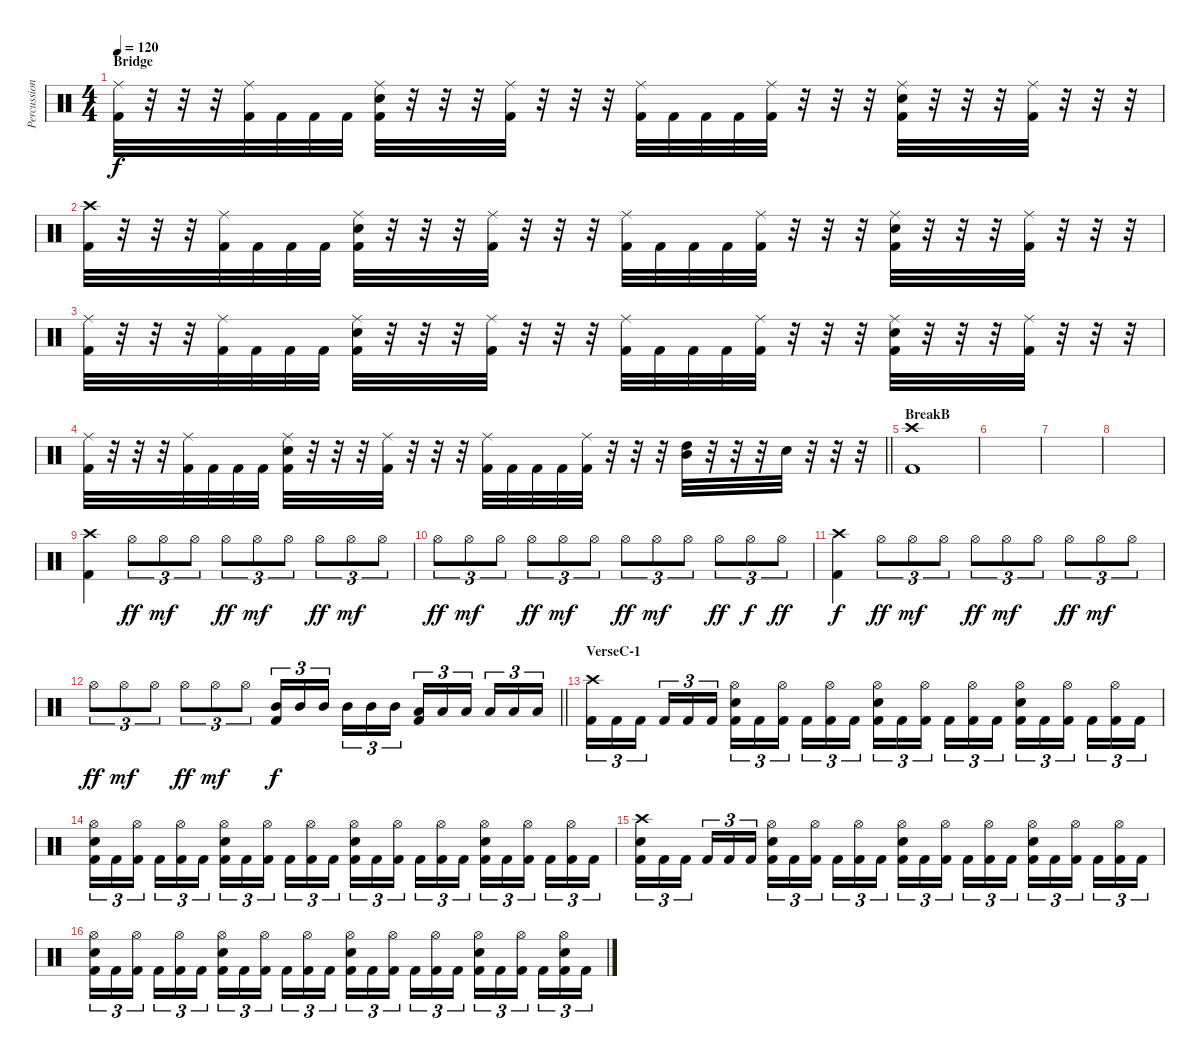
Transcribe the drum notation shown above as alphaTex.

\track ("Percussion" "Percussion") {instrument percussion}
\staff {score}
\articulation defaults
\ts (4 4)
\section ("" "Bridge")
\tempo 120
\clef neutral
\ks c
("Ride (middle)" "Kick (hit) 2").32{dy f} r.32 r.32 r.32 ("Ride (middle)" "Kick (hit) 2").32 "Kick (hit) 2".32 "Kick (hit) 2".32 "Kick (hit) 2".32 ("Ride (middle)" "Snare (hit) 2" "Kick (hit) 2").32 r.32 r.32 r.32 ("Ride (middle)" "Kick (hit) 2").32 r.32 r.32 r.32 ("Ride (middle)" "Kick (hit) 2").32 "Kick (hit) 2".32 "Kick (hit) 2".32 "Kick (hit) 2".32 ("Ride (middle)" "Kick (hit) 2").32 r.32 r.32 r.32 ("Ride (middle)" "Snare (hit) 2" "Kick (hit) 2").32 r.32 r.32 r.32 ("Ride (middle)" "Kick (hit) 2").32 r.32 r.32 r.32 |
("Crash high (hit)" "Kick (hit) 2").32 r.32 r.32 r.32 ("Ride (middle)" "Kick (hit) 2").32 "Kick (hit) 2".32 "Kick (hit) 2".32 "Kick (hit) 2".32 ("Ride (middle)" "Snare (hit) 2" "Kick (hit) 2").32 r.32 r.32 r.32 ("Ride (middle)" "Kick (hit) 2").32 r.32 r.32 r.32 ("Ride (middle)" "Kick (hit) 2").32 "Kick (hit) 2".32 "Kick (hit) 2".32 "Kick (hit) 2".32 ("Ride (middle)" "Kick (hit) 2").32 r.32 r.32 r.32 ("Ride (middle)" "Snare (hit) 2" "Kick (hit) 2").32 r.32 r.32 r.32 ("Ride (middle)" "Kick (hit) 2").32 r.32 r.32 r.32 |
("Ride (middle)" "Kick (hit) 2").32 r.32 r.32 r.32 ("Ride (middle)" "Kick (hit) 2").32 "Kick (hit) 2".32 "Kick (hit) 2".32 "Kick (hit) 2".32 ("Ride (middle)" "Snare (hit) 2" "Kick (hit) 2").32 r.32 r.32 r.32 ("Ride (middle)" "Kick (hit) 2").32 r.32 r.32 r.32 ("Ride (middle)" "Kick (hit) 2").32 "Kick (hit) 2".32 "Kick (hit) 2".32 "Kick (hit) 2".32 ("Ride (middle)" "Kick (hit) 2").32 r.32 r.32 r.32 ("Ride (middle)" "Snare (hit) 2" "Kick (hit) 2").32 r.32 r.32 r.32 ("Ride (middle)" "Kick (hit) 2").32 r.32 r.32 r.32 |
\barLineRight lightlight
("Ride (middle)" "Kick (hit) 2").32 r.32 r.32 r.32 ("Ride (middle)" "Kick (hit) 2").32 "Kick (hit) 2".32 "Kick (hit) 2".32 "Kick (hit) 2".32 ("Ride (middle)" "Snare (hit) 2" "Kick (hit) 2").32 r.32 r.32 r.32 ("Ride (middle)" "Kick (hit) 2").32 r.32 r.32 r.32 ("Ride (middle)" "Kick (hit) 2").32 "Kick (hit) 2".32 "Kick (hit) 2".32 "Kick (hit) 2".32 ("Ride (middle)" "Kick (hit) 2").32 r.32 r.32 r.32 ("High Tom (hit)" "Mid Tom (hit)").32 r.32 r.32 r.32 "Snare (hit) 2".32 r.32 r.32 r.32 |
\section ("" "BreakB")
("Crash high (hit)" "Kick (hit) 2").1 |
|
|
|
("Crash high (hit)" "Kick (hit) 2").4 "Hi-Hat (open)".8{tu (3 2) dy ff} "Hi-Hat (open)".8{tu (3 2) dy mf} "Hi-Hat (open)".8{tu (3 2)} "Hi-Hat (open)".8{tu (3 2) dy ff} "Hi-Hat (open)".8{tu (3 2) dy mf} "Hi-Hat (open)".8{tu (3 2)} "Hi-Hat (open)".8{tu (3 2) dy ff} "Hi-Hat (open)".8{tu (3 2) dy mf} "Hi-Hat (open)".8{tu (3 2)} |
"Hi-Hat (open)".8{tu (3 2) dy ff} "Hi-Hat (open)".8{tu (3 2) dy mf} "Hi-Hat (open)".8{tu (3 2)} "Hi-Hat (open)".8{tu (3 2) dy ff} "Hi-Hat (open)".8{tu (3 2) dy mf} "Hi-Hat (open)".8{tu (3 2)} "Hi-Hat (open)".8{tu (3 2) dy ff} "Hi-Hat (open)".8{tu (3 2) dy mf} "Hi-Hat (open)".8{tu (3 2)} "Hi-Hat (open)".8{tu (3 2) dy ff} "Hi-Hat (open)".8{tu (3 2) dy f} "Hi-Hat (open)".8{tu (3 2) dy ff} |
("Crash high (hit)" "Kick (hit) 2").4{dy f} "Hi-Hat (open)".8{tu (3 2) dy ff} "Hi-Hat (open)".8{tu (3 2) dy mf} "Hi-Hat (open)".8{tu (3 2)} "Hi-Hat (open)".8{tu (3 2) dy ff} "Hi-Hat (open)".8{tu (3 2) dy mf} "Hi-Hat (open)".8{tu (3 2)} "Hi-Hat (open)".8{tu (3 2) dy ff} "Hi-Hat (open)".8{tu (3 2) dy mf} "Hi-Hat (open)".8{tu (3 2)} |
\barLineRight lightlight "Hi-Hat (open)".8{tu (3 2) dy ff} "Hi-Hat (open)".8{tu (3 2) dy mf} "Hi-Hat (open)".8{tu (3 2)} "Hi-Hat (open)".8{tu (3 2) dy ff} "Hi-Hat (open)".8{tu (3 2) dy mf} "Hi-Hat (open)".8{tu (3 2)}
("Mid Tom (hit)" "Kick (hit) 2").16{tu (3 2) dy f} "Mid Tom (hit)".16{tu (3 2)} "Mid Tom (hit)".16{tu (3 2) beam splitsecondary} "Mid Tom (hit)".16{tu (3 2)} "Mid Tom (hit)".16{tu (3 2)} "Mid Tom (hit)".16{tu (3 2)} ("Low Tom (hit)" "Kick (hit) 2").16{tu (3 2)} "Low Tom (hit)".16{tu (3 2)} "Low Tom (hit)".16{tu (3 2) beam splitsecondary} "Low Tom (hit)".16{tu (3 2)} "Low Tom (hit)".16{tu (3 2)} "Low Tom (hit)".16{tu (3 2)} |
\section ("" "VerseC-1")
("Crash high (hit)" "Kick (hit) 2").16{tu (3 2)} "Kick (hit) 2".16{tu (3 2)} "Kick (hit) 2".16{tu (3 2) beam splitsecondary} "Kick (hit) 2".16{tu (3 2)} "Kick (hit) 2".16{tu (3 2)} "Kick (hit) 2".16{tu (3 2)} ("Hi-Hat (open)" "Snare (hit) 2" "Kick (hit) 2").16{tu (3 2)} "Kick (hit) 2".16{tu (3 2)} ("Hi-Hat (open)" "Kick (hit) 2").16{tu (3 2) beam splitsecondary} "Kick (hit) 2".16{tu (3 2)} ("Hi-Hat (open)" "Kick (hit) 2").16{tu (3 2)} "Kick (hit) 2".16{tu (3 2)} ("Hi-Hat (open)" "Snare (hit) 2" "Kick (hit) 2").16{tu (3 2)} "Kick (hit) 2".16{tu (3 2)} ("Hi-Hat (open)" "Kick (hit) 2").16{tu (3 2) beam splitsecondary} "Kick (hit) 2".16{tu (3 2)} ("Hi-Hat (open)" "Kick (hit) 2").16{tu (3 2)} "Kick (hit) 2".16{tu (3 2)} ("Hi-Hat (open)" "Snare (hit) 2" "Kick (hit) 2").16{tu (3 2)} "Kick (hit) 2".16{tu (3 2)} ("Hi-Hat (open)" "Kick (hit) 2").16{tu (3 2) beam splitsecondary} "Kick (hit) 2".16{tu (3 2)} ("Hi-Hat (open)" "Kick (hit) 2").16{tu (3 2)} "Kick (hit) 2".16{tu (3 2)} |
("Hi-Hat (open)" "Snare (hit) 2" "Kick (hit) 2").16{tu (3 2)} "Kick (hit) 2".16{tu (3 2)} ("Hi-Hat (open)" "Kick (hit) 2").16{tu (3 2) beam splitsecondary} "Kick (hit) 2".16{tu (3 2)} ("Hi-Hat (open)" "Kick (hit) 2").16{tu (3 2)} "Kick (hit) 2".16{tu (3 2)} ("Hi-Hat (open)" "Snare (hit) 2" "Kick (hit) 2").16{tu (3 2)} "Kick (hit) 2".16{tu (3 2)} ("Hi-Hat (open)" "Kick (hit) 2").16{tu (3 2) beam splitsecondary} "Kick (hit) 2".16{tu (3 2)} ("Hi-Hat (open)" "Kick (hit) 2").16{tu (3 2)} "Kick (hit) 2".16{tu (3 2)} ("Hi-Hat (open)" "Snare (hit) 2" "Kick (hit) 2").16{tu (3 2)} "Kick (hit) 2".16{tu (3 2)} ("Hi-Hat (open)" "Kick (hit) 2").16{tu (3 2) beam splitsecondary} "Kick (hit) 2".16{tu (3 2)} ("Hi-Hat (open)" "Kick (hit) 2").16{tu (3 2)} "Kick (hit) 2".16{tu (3 2)} ("Hi-Hat (open)" "Snare (hit) 2" "Kick (hit) 2").16{tu (3 2)} "Kick (hit) 2".16{tu (3 2)} ("Hi-Hat (open)" "Kick (hit) 2").16{tu (3 2) beam splitsecondary} "Kick (hit) 2".16{tu (3 2)} ("Hi-Hat (open)" "Kick (hit) 2").16{tu (3 2)} "Kick (hit) 2".16{tu (3 2)} |
("Crash high (hit)" "Snare (hit) 2" "Kick (hit) 2").16{tu (3 2)} "Kick (hit) 2".16{tu (3 2)} "Kick (hit) 2".16{tu (3 2) beam splitsecondary} "Kick (hit) 2".16{tu (3 2)} "Kick (hit) 2".16{tu (3 2)} "Kick (hit) 2".16{tu (3 2)} ("Hi-Hat (open)" "Snare (hit) 2" "Kick (hit) 2").16{tu (3 2)} "Kick (hit) 2".16{tu (3 2)} ("Hi-Hat (open)" "Kick (hit) 2").16{tu (3 2) beam splitsecondary} "Kick (hit) 2".16{tu (3 2)} ("Hi-Hat (open)" "Kick (hit) 2").16{tu (3 2)} "Kick (hit) 2".16{tu (3 2)} ("Hi-Hat (open)" "Snare (hit) 2" "Kick (hit) 2").16{tu (3 2)} "Kick (hit) 2".16{tu (3 2)} ("Hi-Hat (open)" "Kick (hit) 2").16{tu (3 2) beam splitsecondary} "Kick (hit) 2".16{tu (3 2)} ("Hi-Hat (open)" "Kick (hit) 2").16{tu (3 2)} "Kick (hit) 2".16{tu (3 2)} ("Hi-Hat (open)" "Snare (hit) 2" "Kick (hit) 2").16{tu (3 2)} "Kick (hit) 2".16{tu (3 2)} ("Hi-Hat (open)" "Kick (hit) 2").16{tu (3 2) beam splitsecondary} "Kick (hit) 2".16{tu (3 2)} ("Hi-Hat (open)" "Kick (hit) 2").16{tu (3 2)} "Kick (hit) 2".16{tu (3 2)} |
("Hi-Hat (open)" "Snare (hit) 2" "Kick (hit) 2").16{tu (3 2)} "Kick (hit) 2".16{tu (3 2)} ("Hi-Hat (open)" "Kick (hit) 2").16{tu (3 2) beam splitsecondary} "Kick (hit) 2".16{tu (3 2)} ("Hi-Hat (open)" "Kick (hit) 2").16{tu (3 2)} "Kick (hit) 2".16{tu (3 2)} ("Hi-Hat (open)" "Snare (hit) 2" "Kick (hit) 2").16{tu (3 2)} "Kick (hit) 2".16{tu (3 2)} ("Hi-Hat (open)" "Kick (hit) 2").16{tu (3 2) beam splitsecondary} "Kick (hit) 2".16{tu (3 2)} ("Hi-Hat (open)" "Kick (hit) 2").16{tu (3 2)} "Kick (hit) 2".16{tu (3 2)} ("Hi-Hat (open)" "Snare (hit) 2" "Kick (hit) 2").16{tu (3 2)} "Kick (hit) 2".16{tu (3 2)} ("Hi-Hat (open)" "Kick (hit) 2").16{tu (3 2) beam splitsecondary} "Kick (hit) 2".16{tu (3 2)} ("Hi-Hat (open)" "Kick (hit) 2").16{tu (3 2)} "Kick (hit) 2".16{tu (3 2)} ("Hi-Hat (open)" "Snare (hit) 2" "Kick (hit) 2").16{tu (3 2)} "Kick (hit) 2".16{tu (3 2)} ("Hi-Hat (open)" "Kick (hit) 2").16{tu (3 2) beam splitsecondary} "Kick (hit) 2".16{tu (3 2)} ("Hi-Hat (open)" "Snare (hit) 2" "Kick (hit) 2").16{tu (3 2)} "Kick (hit) 2".16{tu (3 2)}
